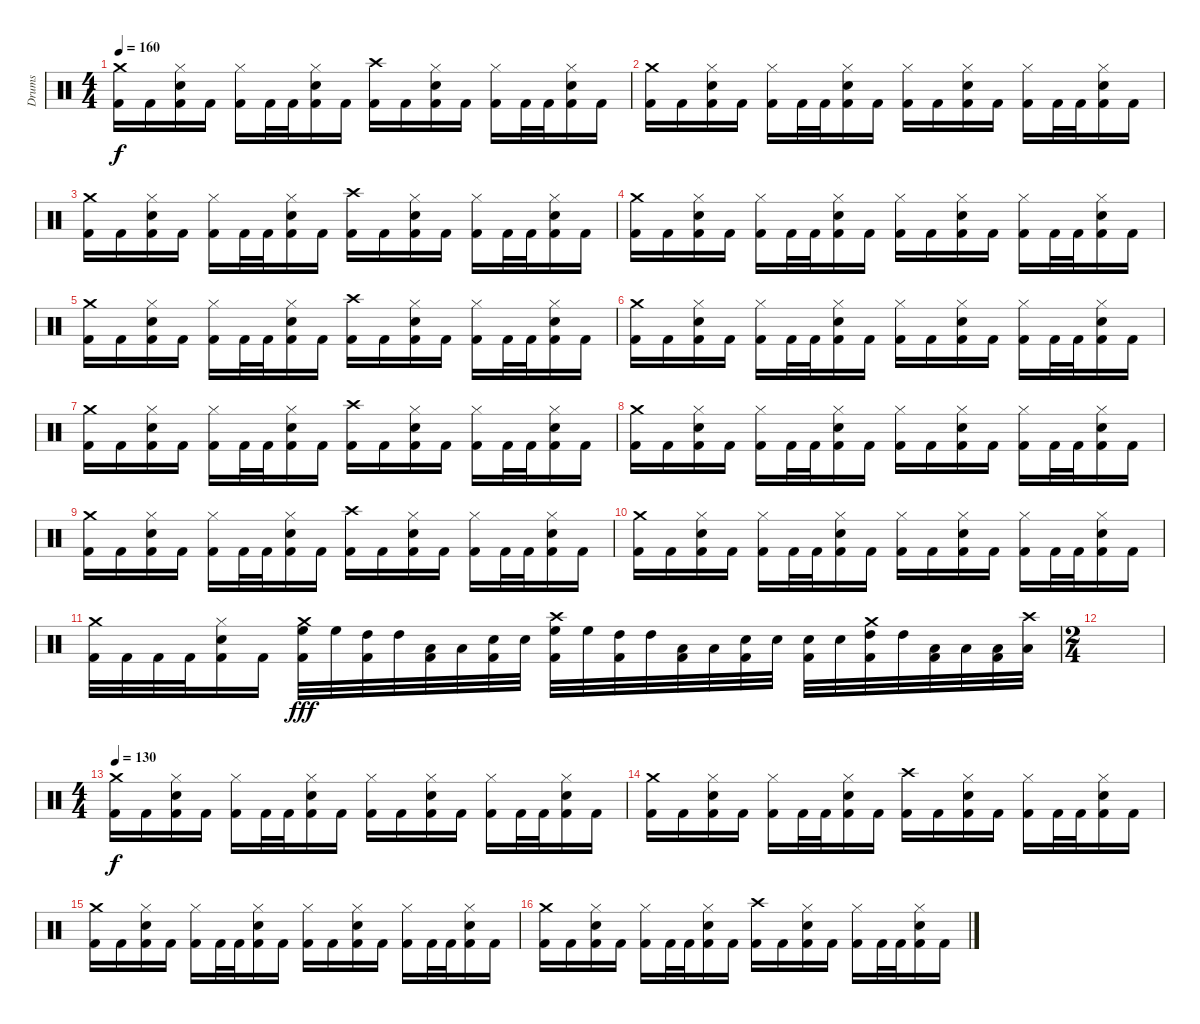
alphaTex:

\track ("Drums" "Drums") {instrument percussion}
\staff {score}
\articulation defaults
\ts (4 4)
\tempo 160
\clef neutral
\ks c
("Crash medium (hit)" "Kick (hit) 2").16{dy f} "Kick (hit) 2".16 ("Hi-Hat (closed)" "Electric Snare (hit)" "Kick (hit) 2").16 "Kick (hit) 2".16 ("Hi-Hat (closed)" "Kick (hit) 2").16 "Kick (hit) 2".32 "Kick (hit) 2".32 ("Hi-Hat (closed)" "Electric Snare (hit)" "Kick (hit) 2").16 "Kick (hit) 2".16 ("Crash high (hit)" "Kick (hit) 2").16 "Kick (hit) 2".16 ("Hi-Hat (closed)" "Electric Snare (hit)" "Kick (hit) 2").16 "Kick (hit) 2".16 ("Hi-Hat (closed)" "Kick (hit) 2").16 "Kick (hit) 2".32 "Kick (hit) 2".32 ("Hi-Hat (closed)" "Electric Snare (hit)" "Kick (hit) 2").16 "Kick (hit) 2".16 |
("Crash medium (hit)" "Kick (hit) 2").16 "Kick (hit) 2".16 ("Hi-Hat (closed)" "Electric Snare (hit)" "Kick (hit) 2").16 "Kick (hit) 2".16 ("Hi-Hat (closed)" "Kick (hit) 2").16 "Kick (hit) 2".32 "Kick (hit) 2".32 ("Hi-Hat (closed)" "Electric Snare (hit)" "Kick (hit) 2").16 "Kick (hit) 2".16 ("Hi-Hat (closed)" "Kick (hit) 2").16 "Kick (hit) 2".16 ("Hi-Hat (closed)" "Electric Snare (hit)" "Kick (hit) 2").16 "Kick (hit) 2".16 ("Hi-Hat (closed)" "Kick (hit) 2").16 "Kick (hit) 2".32 "Kick (hit) 2".32 ("Hi-Hat (closed)" "Electric Snare (hit)" "Kick (hit) 2").16 "Kick (hit) 2".16 |
("Crash medium (hit)" "Kick (hit) 2").16 "Kick (hit) 2".16 ("Hi-Hat (closed)" "Electric Snare (hit)" "Kick (hit) 2").16 "Kick (hit) 2".16 ("Hi-Hat (closed)" "Kick (hit) 2").16 "Kick (hit) 2".32 "Kick (hit) 2".32 ("Hi-Hat (closed)" "Electric Snare (hit)" "Kick (hit) 2").16 "Kick (hit) 2".16 ("Crash high (hit)" "Kick (hit) 2").16 "Kick (hit) 2".16 ("Hi-Hat (closed)" "Electric Snare (hit)" "Kick (hit) 2").16 "Kick (hit) 2".16 ("Hi-Hat (closed)" "Kick (hit) 2").16 "Kick (hit) 2".32 "Kick (hit) 2".32 ("Hi-Hat (closed)" "Electric Snare (hit)" "Kick (hit) 2").16 "Kick (hit) 2".16 |
("Crash medium (hit)" "Kick (hit) 2").16 "Kick (hit) 2".16 ("Hi-Hat (closed)" "Electric Snare (hit)" "Kick (hit) 2").16 "Kick (hit) 2".16 ("Hi-Hat (closed)" "Kick (hit) 2").16 "Kick (hit) 2".32 "Kick (hit) 2".32 ("Hi-Hat (closed)" "Electric Snare (hit)" "Kick (hit) 2").16 "Kick (hit) 2".16 ("Hi-Hat (closed)" "Kick (hit) 2").16 "Kick (hit) 2".16 ("Hi-Hat (closed)" "Electric Snare (hit)" "Kick (hit) 2").16 "Kick (hit) 2".16 ("Hi-Hat (closed)" "Kick (hit) 2").16 "Kick (hit) 2".32 "Kick (hit) 2".32 ("Hi-Hat (closed)" "Electric Snare (hit)" "Kick (hit) 2").16 "Kick (hit) 2".16 |
("Crash medium (hit)" "Kick (hit) 2").16 "Kick (hit) 2".16 ("Hi-Hat (closed)" "Electric Snare (hit)" "Kick (hit) 2").16 "Kick (hit) 2".16 ("Hi-Hat (closed)" "Kick (hit) 2").16 "Kick (hit) 2".32 "Kick (hit) 2".32 ("Hi-Hat (closed)" "Electric Snare (hit)" "Kick (hit) 2").16 "Kick (hit) 2".16 ("Crash high (hit)" "Kick (hit) 2").16 "Kick (hit) 2".16 ("Hi-Hat (closed)" "Electric Snare (hit)" "Kick (hit) 2").16 "Kick (hit) 2".16 ("Hi-Hat (closed)" "Kick (hit) 2").16 "Kick (hit) 2".32 "Kick (hit) 2".32 ("Hi-Hat (closed)" "Electric Snare (hit)" "Kick (hit) 2").16 "Kick (hit) 2".16 |
("Crash medium (hit)" "Kick (hit) 2").16 "Kick (hit) 2".16 ("Hi-Hat (closed)" "Electric Snare (hit)" "Kick (hit) 2").16 "Kick (hit) 2".16 ("Hi-Hat (closed)" "Kick (hit) 2").16 "Kick (hit) 2".32 "Kick (hit) 2".32 ("Hi-Hat (closed)" "Electric Snare (hit)" "Kick (hit) 2").16 "Kick (hit) 2".16 ("Hi-Hat (closed)" "Kick (hit) 2").16 "Kick (hit) 2".16 ("Hi-Hat (closed)" "Electric Snare (hit)" "Kick (hit) 2").16 "Kick (hit) 2".16 ("Hi-Hat (closed)" "Kick (hit) 2").16 "Kick (hit) 2".32 "Kick (hit) 2".32 ("Hi-Hat (closed)" "Electric Snare (hit)" "Kick (hit) 2").16 "Kick (hit) 2".16 |
("Crash medium (hit)" "Kick (hit) 2").16 "Kick (hit) 2".16 ("Hi-Hat (closed)" "Electric Snare (hit)" "Kick (hit) 2").16 "Kick (hit) 2".16 ("Hi-Hat (closed)" "Kick (hit) 2").16 "Kick (hit) 2".32 "Kick (hit) 2".32 ("Hi-Hat (closed)" "Electric Snare (hit)" "Kick (hit) 2").16 "Kick (hit) 2".16 ("Crash high (hit)" "Kick (hit) 2").16 "Kick (hit) 2".16 ("Hi-Hat (closed)" "Electric Snare (hit)" "Kick (hit) 2").16 "Kick (hit) 2".16 ("Hi-Hat (closed)" "Kick (hit) 2").16 "Kick (hit) 2".32 "Kick (hit) 2".32 ("Hi-Hat (closed)" "Electric Snare (hit)" "Kick (hit) 2").16 "Kick (hit) 2".16 |
("Crash medium (hit)" "Kick (hit) 2").16 "Kick (hit) 2".16 ("Hi-Hat (closed)" "Electric Snare (hit)" "Kick (hit) 2").16 "Kick (hit) 2".16 ("Hi-Hat (closed)" "Kick (hit) 2").16 "Kick (hit) 2".32 "Kick (hit) 2".32 ("Hi-Hat (closed)" "Electric Snare (hit)" "Kick (hit) 2").16 "Kick (hit) 2".16 ("Hi-Hat (closed)" "Kick (hit) 2").16 "Kick (hit) 2".16 ("Hi-Hat (closed)" "Electric Snare (hit)" "Kick (hit) 2").16 "Kick (hit) 2".16 ("Hi-Hat (closed)" "Kick (hit) 2").16 "Kick (hit) 2".32 "Kick (hit) 2".32 ("Hi-Hat (closed)" "Electric Snare (hit)" "Kick (hit) 2").16 "Kick (hit) 2".16 |
("Crash medium (hit)" "Kick (hit) 2").16 "Kick (hit) 2".16 ("Hi-Hat (closed)" "Electric Snare (hit)" "Kick (hit) 2").16 "Kick (hit) 2".16 ("Hi-Hat (closed)" "Kick (hit) 2").16 "Kick (hit) 2".32 "Kick (hit) 2".32 ("Hi-Hat (closed)" "Electric Snare (hit)" "Kick (hit) 2").16 "Kick (hit) 2".16 ("Crash high (hit)" "Kick (hit) 2").16 "Kick (hit) 2".16 ("Hi-Hat (closed)" "Electric Snare (hit)" "Kick (hit) 2").16 "Kick (hit) 2".16 ("Hi-Hat (closed)" "Kick (hit) 2").16 "Kick (hit) 2".32 "Kick (hit) 2".32 ("Hi-Hat (closed)" "Electric Snare (hit)" "Kick (hit) 2").16 "Kick (hit) 2".16 |
("Crash medium (hit)" "Kick (hit) 2").16 "Kick (hit) 2".16 ("Hi-Hat (closed)" "Electric Snare (hit)" "Kick (hit) 2").16 "Kick (hit) 2".16 ("Hi-Hat (closed)" "Kick (hit) 2").16 "Kick (hit) 2".32 "Kick (hit) 2".32 ("Hi-Hat (closed)" "Electric Snare (hit)" "Kick (hit) 2").16 "Kick (hit) 2".16 ("Hi-Hat (closed)" "Kick (hit) 2").16 "Kick (hit) 2".16 ("Hi-Hat (closed)" "Electric Snare (hit)" "Kick (hit) 2").16 "Kick (hit) 2".16 ("Hi-Hat (closed)" "Kick (hit) 2").16 "Kick (hit) 2".32 "Kick (hit) 2".32 ("Hi-Hat (closed)" "Electric Snare (hit)" "Kick (hit) 2").16 "Kick (hit) 2".16 |
("Crash medium (hit)" "Kick (hit) 2").32 "Kick (hit) 2".32 "Kick (hit) 2".32 "Kick (hit) 2".32 ("Hi-Hat (closed)" "Electric Snare (hit)" "Kick (hit) 2").16 "Kick (hit) 2".16 ("Crash medium (hit)" "High Floor Tom (hit)" "Kick (hit) 2").32{dy fff} "High Floor Tom (hit)".32 ("High Tom (hit)" "Kick (hit) 2").32 "High Tom (hit)".32 ("Low Tom (hit)" "Kick (hit) 2").32 "Low Tom (hit)".32 ("Electric Snare (hit)" "Kick (hit) 2").32 "Electric Snare (hit)".32 ("Crash high (hit)" "High Floor Tom (hit)" "Kick (hit) 2").32 "High Floor Tom (hit)".32 ("High Tom (hit)" "Kick (hit) 2").32 "High Tom (hit)".32 ("Low Tom (hit)" "Kick (hit) 2").32 "Low Tom (hit)".32 ("Electric Snare (hit)" "Kick (hit) 2").32 "Electric Snare (hit)".32 ("Electric Snare (hit)" "Kick (hit) 2").32 "Electric Snare (hit)".32 ("Crash medium (hit)" "High Tom (hit)" "Kick (hit) 2").32 "High Tom (hit)".32 ("Low Tom (hit)" "Kick (hit) 2").32 "Low Tom (hit)".32 ("Low Floor Tom (hit)" "Kick (hit) 2").32 ("Crash high (hit)" "Low Floor Tom (hit)").32 |
\ts (2 4)
|
\ts (4 4)
\tempo 130
("Crash medium (hit)" "Kick (hit) 2").16{dy f} "Kick (hit) 2".16 ("Hi-Hat (closed)" "Electric Snare (hit)" "Kick (hit) 2").16 "Kick (hit) 2".16 ("Hi-Hat (closed)" "Kick (hit) 2").16 "Kick (hit) 2".32 "Kick (hit) 2".32 ("Hi-Hat (closed)" "Electric Snare (hit)" "Kick (hit) 2").16 "Kick (hit) 2".16 ("Hi-Hat (closed)" "Kick (hit) 2").16 "Kick (hit) 2".16 ("Hi-Hat (closed)" "Electric Snare (hit)" "Kick (hit) 2").16 "Kick (hit) 2".16 ("Hi-Hat (closed)" "Kick (hit) 2").16 "Kick (hit) 2".32 "Kick (hit) 2".32 ("Hi-Hat (closed)" "Electric Snare (hit)" "Kick (hit) 2").16 "Kick (hit) 2".16 |
("Crash medium (hit)" "Kick (hit) 2").16 "Kick (hit) 2".16 ("Hi-Hat (closed)" "Electric Snare (hit)" "Kick (hit) 2").16 "Kick (hit) 2".16 ("Hi-Hat (closed)" "Kick (hit) 2").16 "Kick (hit) 2".32 "Kick (hit) 2".32 ("Hi-Hat (closed)" "Electric Snare (hit)" "Kick (hit) 2").16 "Kick (hit) 2".16 ("Crash high (hit)" "Kick (hit) 2").16 "Kick (hit) 2".16 ("Hi-Hat (closed)" "Electric Snare (hit)" "Kick (hit) 2").16 "Kick (hit) 2".16 ("Hi-Hat (closed)" "Kick (hit) 2").16 "Kick (hit) 2".32 "Kick (hit) 2".32 ("Hi-Hat (closed)" "Electric Snare (hit)" "Kick (hit) 2").16 "Kick (hit) 2".16 |
("Crash medium (hit)" "Kick (hit) 2").16 "Kick (hit) 2".16 ("Hi-Hat (closed)" "Electric Snare (hit)" "Kick (hit) 2").16 "Kick (hit) 2".16 ("Hi-Hat (closed)" "Kick (hit) 2").16 "Kick (hit) 2".32 "Kick (hit) 2".32 ("Hi-Hat (closed)" "Electric Snare (hit)" "Kick (hit) 2").16 "Kick (hit) 2".16 ("Hi-Hat (closed)" "Kick (hit) 2").16 "Kick (hit) 2".16 ("Hi-Hat (closed)" "Electric Snare (hit)" "Kick (hit) 2").16 "Kick (hit) 2".16 ("Hi-Hat (closed)" "Kick (hit) 2").16 "Kick (hit) 2".32 "Kick (hit) 2".32 ("Hi-Hat (closed)" "Electric Snare (hit)" "Kick (hit) 2").16 "Kick (hit) 2".16 |
("Crash medium (hit)" "Kick (hit) 2").16 "Kick (hit) 2".16 ("Hi-Hat (closed)" "Electric Snare (hit)" "Kick (hit) 2").16 "Kick (hit) 2".16 ("Hi-Hat (closed)" "Kick (hit) 2").16 "Kick (hit) 2".32 "Kick (hit) 2".32 ("Hi-Hat (closed)" "Electric Snare (hit)" "Kick (hit) 2").16 "Kick (hit) 2".16 ("Crash high (hit)" "Kick (hit) 2").16 "Kick (hit) 2".16 ("Hi-Hat (closed)" "Electric Snare (hit)" "Kick (hit) 2").16 "Kick (hit) 2".16 ("Hi-Hat (closed)" "Kick (hit) 2").16 "Kick (hit) 2".32 "Kick (hit) 2".32 ("Hi-Hat (closed)" "Electric Snare (hit)" "Kick (hit) 2").16 "Kick (hit) 2".16
